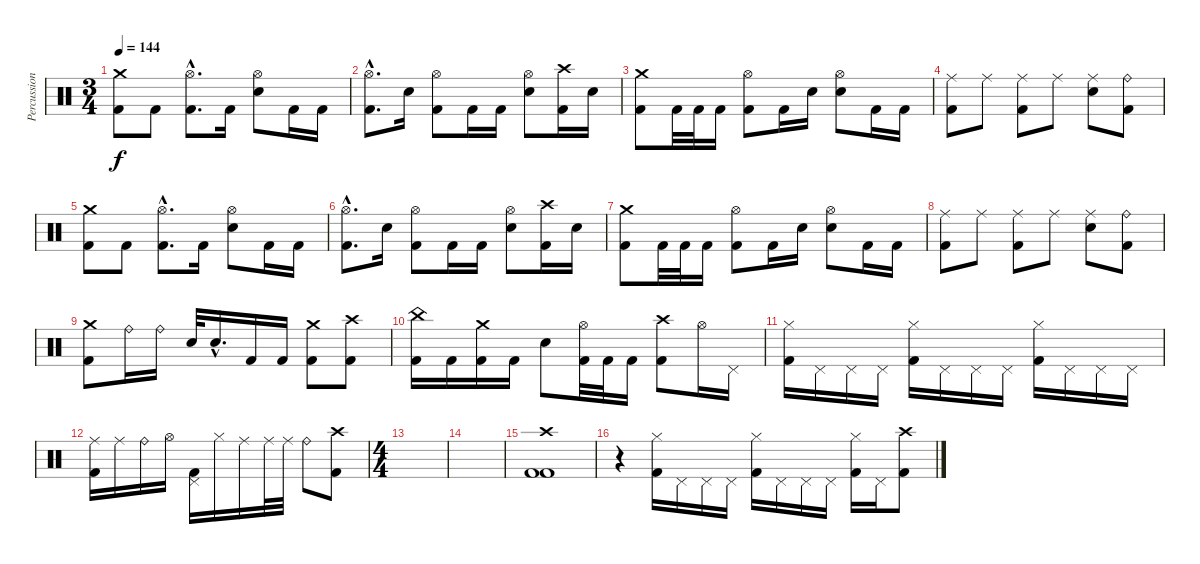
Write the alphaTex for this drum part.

\track ("Percussion" "Percussion") {instrument percussion}
\staff {score}
\articulation defaults
\ts (3 4)
\tempo 144
\clef neutral
\ks c
("Crash medium (hit)" "Kick (hit) 2").8{dy f} "Kick (hit) 2".8 ("Hi-Hat (open)"{hac} "Kick (hit) 2"{hac}).8{d} "Kick (hit) 2".16 ("Hi-Hat (open)" "Electric Snare (hit)").8 "Kick (hit) 2".16 "Kick (hit) 2".16 |
("Hi-Hat (open)"{hac} "Kick (hit) 2"{hac}).8{d} "Electric Snare (hit)".16 ("Hi-Hat (open)" "Kick (hit) 2").8 "Kick (hit) 2".16 "Kick (hit) 2".16 ("Hi-Hat (open)" "Electric Snare (hit)").8 ("Crash high (hit)" "Kick (hit) 2").16 "Electric Snare (hit)".16 |
("Crash medium (hit)" "Kick (hit) 2").8 "Kick (hit) 2".32 "Kick (hit) 2".32 "Kick (hit) 2".16 ("Hi-Hat (open)" "Kick (hit) 2").8 "Kick (hit) 2".16 "Electric Snare (hit)".16 ("Hi-Hat (open)" "Electric Snare (hit)").8 "Kick (hit) 2".16 "Kick (hit) 2".16 |
("Ride (middle)" "Kick (hit) 2").8 "Ride (middle)".8 ("Ride (middle)" "Kick (hit) 2").8 "Ride (middle)".8 ("Ride (middle)" "Electric Snare (hit)").8 ("Ride (bell)" "Kick (hit) 2").8 |
("Crash medium (hit)" "Kick (hit) 2").8 "Kick (hit) 2".8 ("Hi-Hat (open)"{hac} "Kick (hit) 2"{hac}).8{d} "Kick (hit) 2".16 ("Hi-Hat (open)" "Electric Snare (hit)").8 "Kick (hit) 2".16 "Kick (hit) 2".16 |
("Hi-Hat (open)"{hac} "Kick (hit) 2"{hac}).8{d} "Electric Snare (hit)".16 ("Hi-Hat (open)" "Kick (hit) 2").8 "Kick (hit) 2".16 "Kick (hit) 2".16 ("Hi-Hat (open)" "Electric Snare (hit)").8 ("Crash high (hit)" "Kick (hit) 2").16 "Electric Snare (hit)".16 |
("Crash medium (hit)" "Kick (hit) 2").8 "Kick (hit) 2".32 "Kick (hit) 2".32 "Kick (hit) 2".16 ("Hi-Hat (open)" "Kick (hit) 2").8 "Kick (hit) 2".16 "Electric Snare (hit)".16 ("Hi-Hat (open)" "Electric Snare (hit)").8 "Kick (hit) 2".16 "Kick (hit) 2".16 |
("Ride (middle)" "Kick (hit) 2").8 "Ride (middle)".8 ("Ride (middle)" "Kick (hit) 2").8 "Ride (middle)".8 ("Ride (middle)" "Electric Snare (hit)").8 ("Ride (bell)" "Kick (hit) 2").8 |
("Crash medium (hit)" "Kick (hit) 2").8 "Ride (bell)".16 "Ride (bell)".16 "Electric Snare (hit)".32 "Electric Snare (hit)"{hac}.16{d} "Kick (hit) 2".16 "Kick (hit) 2".16 ("Crash medium (hit)" "Kick (hit) 2").8 ("Crash high (hit)" "Kick (hit) 2").8 |
("China (hit)" "Kick (hit) 2").16 "Kick (hit) 2".16 ("Crash medium (hit)" "Kick (hit) 2").16 "Kick (hit) 2".16 "Electric Snare (hit)".8 ("Hi-Hat (open)" "Kick (hit) 2").32 "Kick (hit) 2".32 "Kick (hit) 2".16 ("Crash high (hit)" "Kick (hit) 2").8 "Hi-Hat (open)".16 "Pedal Hi-Hat (hit)".16 |
("Hi-Hat (closed)" "Kick (hit) 2").16 "Pedal Hi-Hat (hit)".16 "Pedal Hi-Hat (hit)".16 "Pedal Hi-Hat (hit)".16 ("Hi-Hat (closed)" "Kick (hit) 2").16 "Pedal Hi-Hat (hit)".16 "Pedal Hi-Hat (hit)".16 "Pedal Hi-Hat (hit)".16 ("Hi-Hat (closed)" "Kick (hit) 2").16 "Pedal Hi-Hat (hit)".16 "Pedal Hi-Hat (hit)".16 "Pedal Hi-Hat (hit)".16 |
("Ride (middle)" "Kick (hit) 2").16 "Ride (middle)".16 "Ride (bell)".16 "Hi-Hat (open)".16 ("Pedal Hi-Hat (hit)" "Kick (hit) 2").16 "Hi-Hat (closed)".16 "Ride (middle)".16 "Ride (middle)".32 "Ride (middle)".32 "Ride (bell)".8 ("Crash high (hit)" "Kick (hit) 2").8 |
\ts (4 4)
|
|
("Crash high (hit)" "Kick (hit) 2" "Kick (hit) 2").1 |
r.4 ("Hi-Hat (closed)" "Kick (hit) 2").16 "Pedal Hi-Hat (hit)".16 "Pedal Hi-Hat (hit)".16 "Pedal Hi-Hat (hit)".16 ("Hi-Hat (closed)" "Kick (hit) 2").16 "Pedal Hi-Hat (hit)".16 "Pedal Hi-Hat (hit)".16 "Pedal Hi-Hat (hit)".16 ("Hi-Hat (closed)" "Kick (hit) 2").16 "Pedal Hi-Hat (hit)".16 ("Crash high (hit)" "Kick (hit) 2").8
